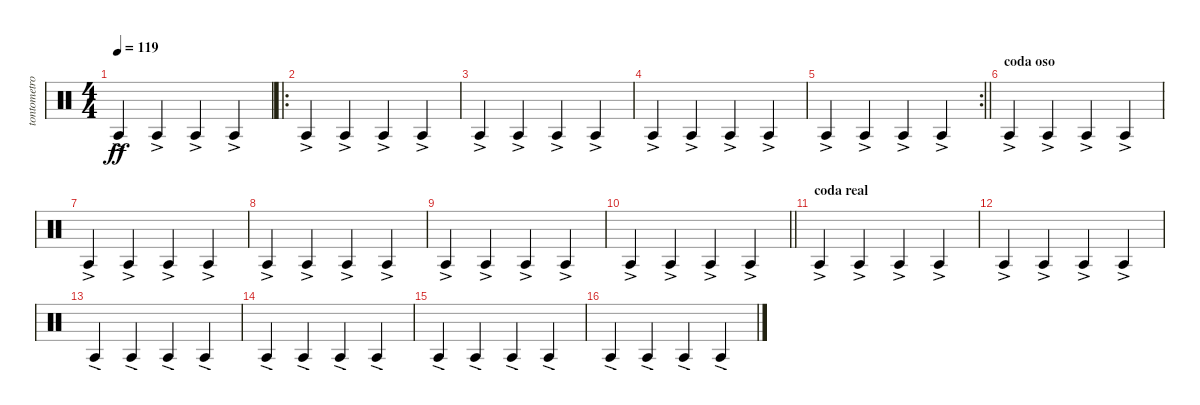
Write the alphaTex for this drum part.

\track ("tontometro" "tontometro") {mute instrument percussion}
\staff {score}
\articulation defaults
\ts (4 4)
\tempo 119
\clef neutral
\ks c "Agogo tow (hit)"{ac}.4{dy ff} "Agogo tow (hit)"{ac}.4 "Agogo tow (hit)"{ac}.4 "Agogo tow (hit)"{ac}.4
|
\ro "Agogo tow (hit)"{ac}.4 "Agogo tow (hit)"{ac}.4 "Agogo tow (hit)"{ac}.4 "Agogo tow (hit)"{ac}.4
|
"Agogo tow (hit)"{ac}.4 "Agogo tow (hit)"{ac}.4 "Agogo tow (hit)"{ac}.4 "Agogo tow (hit)"{ac}.4 |
"Agogo tow (hit)"{ac}.4 "Agogo tow (hit)"{ac}.4 "Agogo tow (hit)"{ac}.4 "Agogo tow (hit)"{ac}.4 |
\rc 2
\barLineRight lightlight "Agogo tow (hit)"{ac}.4 "Agogo tow (hit)"{ac}.4 "Agogo tow (hit)"{ac}.4 "Agogo tow (hit)"{ac}.4
|
\section ("" "coda oso")
"Agogo tow (hit)"{ac}.4 "Agogo tow (hit)"{ac}.4 "Agogo tow (hit)"{ac}.4 "Agogo tow (hit)"{ac}.4 |
"Agogo tow (hit)"{ac}.4 "Agogo tow (hit)"{ac}.4 "Agogo tow (hit)"{ac}.4 "Agogo tow (hit)"{ac}.4 |
"Agogo tow (hit)"{ac}.4 "Agogo tow (hit)"{ac}.4 "Agogo tow (hit)"{ac}.4 "Agogo tow (hit)"{ac}.4 |
"Agogo tow (hit)"{ac}.4 "Agogo tow (hit)"{ac}.4 "Agogo tow (hit)"{ac}.4 "Agogo tow (hit)"{ac}.4 |
\barLineRight lightlight "Agogo tow (hit)"{ac}.4 "Agogo tow (hit)"{ac}.4 "Agogo tow (hit)"{ac}.4 "Agogo tow (hit)"{ac}.4
|
\section ("" "coda real")
"Agogo tow (hit)"{ac}.4 "Agogo tow (hit)"{ac}.4 "Agogo tow (hit)"{ac}.4 "Agogo tow (hit)"{ac}.4 |
"Agogo tow (hit)"{ac}.4 "Agogo tow (hit)"{ac}.4 "Agogo tow (hit)"{ac}.4 "Agogo tow (hit)"{ac}.4 |
"Agogo tow (hit)"{ac}.4 "Agogo tow (hit)"{ac}.4 "Agogo tow (hit)"{ac}.4 "Agogo tow (hit)"{ac}.4 |
"Agogo tow (hit)"{ac}.4 "Agogo tow (hit)"{ac}.4 "Agogo tow (hit)"{ac}.4 "Agogo tow (hit)"{ac}.4 |
"Agogo tow (hit)"{ac}.4 "Agogo tow (hit)"{ac}.4 "Agogo tow (hit)"{ac}.4 "Agogo tow (hit)"{ac}.4 |
"Agogo tow (hit)"{ac}.4 "Agogo tow (hit)"{ac}.4 "Agogo tow (hit)"{ac}.4 "Agogo tow (hit)"{ac}.4
